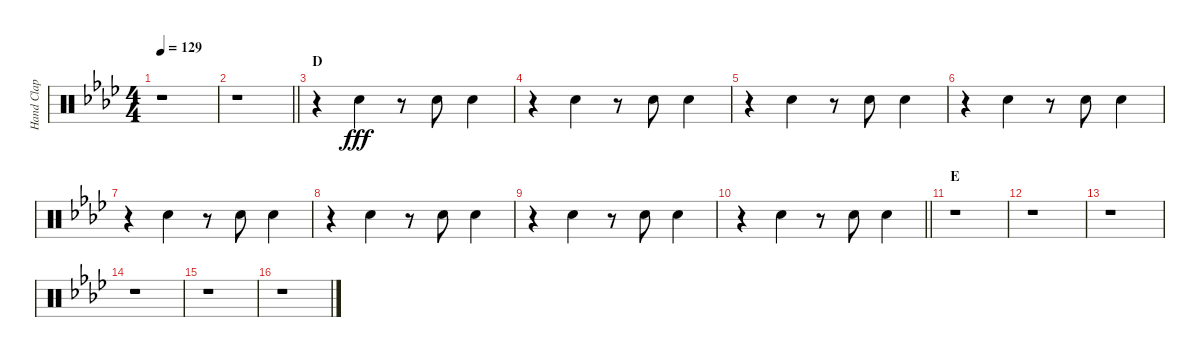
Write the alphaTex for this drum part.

\track ("Hand Clap" "Hand Clap") {instrument percussion}
\staff {score}
\articulation defaults
\ts (4 4)
\tempo 129
\clef neutral
\ks ab
r.1{dy fff} |
\barLineRight lightlight
r.1 |
\section ("" "D")
r.4 "Hand Clap (hit)".4 r.8 "Hand Clap (hit)".8 "Hand Clap (hit)".4 |
r.4 "Hand Clap (hit)".4 r.8 "Hand Clap (hit)".8 "Hand Clap (hit)".4 |
r.4 "Hand Clap (hit)".4 r.8 "Hand Clap (hit)".8 "Hand Clap (hit)".4 |
r.4 "Hand Clap (hit)".4 r.8 "Hand Clap (hit)".8 "Hand Clap (hit)".4 |
r.4 "Hand Clap (hit)".4 r.8 "Hand Clap (hit)".8 "Hand Clap (hit)".4 |
r.4 "Hand Clap (hit)".4 r.8 "Hand Clap (hit)".8 "Hand Clap (hit)".4 |
r.4 "Hand Clap (hit)".4 r.8 "Hand Clap (hit)".8 "Hand Clap (hit)".4 |
\barLineRight lightlight
r.4 "Hand Clap (hit)".4 r.8 "Hand Clap (hit)".8 "Hand Clap (hit)".4 |
\section ("" "E")
r.1 |
r.1 |
r.1 |
r.1 |
r.1 |
r.1
